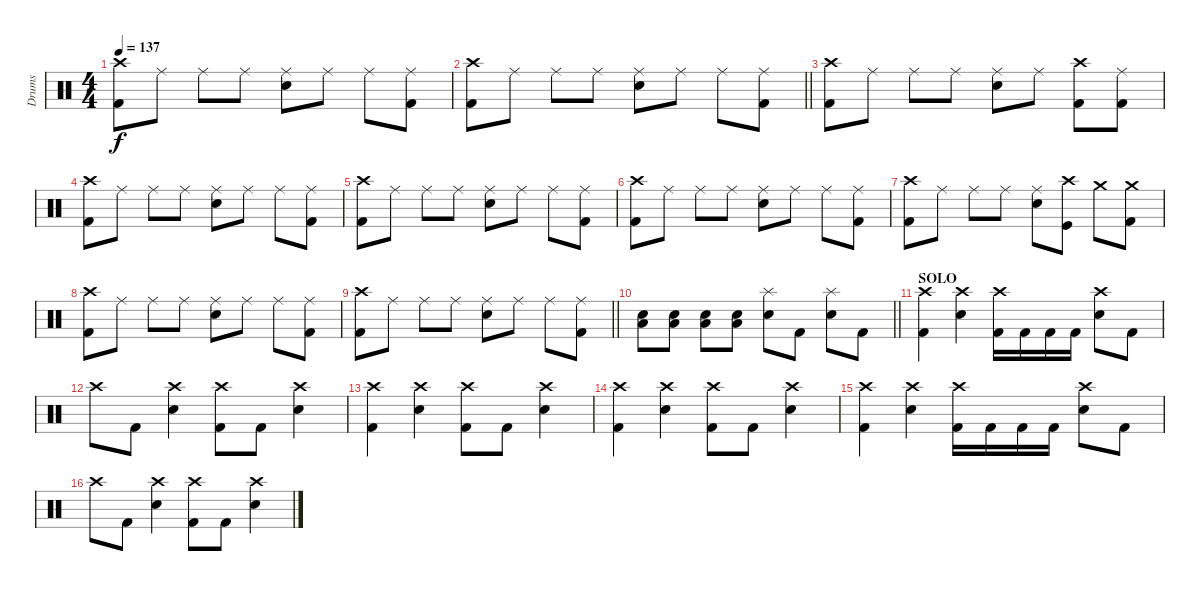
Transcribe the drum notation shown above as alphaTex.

\track ("Drums" "Drums") {instrument percussion}
\staff {score}
\articulation defaults
\ts (4 4)
\tempo 137
\clef neutral
\ks c
("Crash high (hit)" "Kick (hit) 2").8{dy f} "Ride (middle)".8 "Ride (middle)".8 "Ride (middle)".8 ("Ride (middle)" "Electric Snare (hit)").8 "Ride (middle)".8 "Ride (middle)".8 ("Ride (middle)" "Kick (hit) 2").8 |
\barLineRight lightlight
("Crash high (hit)" "Kick (hit) 2").8 "Ride (middle)".8 "Ride (middle)".8 "Ride (middle)".8 ("Ride (middle)" "Electric Snare (hit)").8 "Ride (middle)".8 "Ride (middle)".8 ("Ride (middle)" "Kick (hit) 2").8 |
("Crash high (hit)" "Kick (hit) 2").8 "Ride (middle)".8 "Ride (middle)".8 "Ride (middle)".8 ("Ride (middle)" "Electric Snare (hit)").8 "Ride (middle)".8 ("Crash high (hit)" "Kick (hit) 2").8 ("Ride (middle)" "Kick (hit) 2").8 |
("Crash high (hit)" "Kick (hit) 2").8 "Ride (middle)".8 "Ride (middle)".8 "Ride (middle)".8 ("Ride (middle)" "Electric Snare (hit)").8 "Ride (middle)".8 "Ride (middle)".8 ("Ride (middle)" "Kick (hit) 2").8 |
("Crash high (hit)" "Kick (hit) 2").8 "Ride (middle)".8 "Ride (middle)".8 "Ride (middle)".8 ("Ride (middle)" "Electric Snare (hit)").8 "Ride (middle)".8 "Ride (middle)".8 ("Ride (middle)" "Kick (hit) 2").8 |
("Crash high (hit)" "Kick (hit) 2").8 "Ride (middle)".8 "Ride (middle)".8 "Ride (middle)".8 ("Ride (middle)" "Electric Snare (hit)").8 "Ride (middle)".8 "Ride (middle)".8 ("Ride (middle)" "Kick (hit) 2").8 |
("Crash high (hit)" "Kick (hit) 2").8 "Ride (middle)".8 "Ride (middle)".8 "Ride (middle)".8 ("Ride (middle)" "Electric Snare (hit)").8 ("Crash high (hit)" "Kick (hit)").8 "Crash medium (hit)".8 ("Crash medium (hit)" "Kick (hit) 2").8 |
("Crash high (hit)" "Kick (hit) 2").8 "Ride (middle)".8 "Ride (middle)".8 "Ride (middle)".8 ("Ride (middle)" "Electric Snare (hit)").8 "Ride (middle)".8 "Ride (middle)".8 ("Ride (middle)" "Kick (hit) 2").8 |
\barLineRight lightlight
("Crash high (hit)" "Kick (hit) 2").8 "Ride (middle)".8 "Ride (middle)".8 "Ride (middle)".8 ("Ride (middle)" "Electric Snare (hit)").8 "Ride (middle)".8 "Ride (middle)".8 ("Ride (middle)" "Kick (hit) 2").8 |
\barLineRight lightlight
("Low Floor Tom (hit)" "Electric Snare (hit)").8 ("Low Floor Tom (hit)" "Electric Snare (hit)").8 ("Low Floor Tom (hit)" "Electric Snare (hit)").8 ("Low Floor Tom (hit)" "Electric Snare (hit)").8 ("Splash (hit)" "Electric Snare (hit)").8 "Kick (hit) 2".8 ("Splash (hit)" "Electric Snare (hit)").8 "Kick (hit) 2".8 |
\section ("" "SOLO")
("Crash high (hit)" "Kick (hit) 2").4 ("Crash high (hit)" "Electric Snare (hit)").4 ("Crash high (hit)" "Kick (hit) 2").16 "Kick (hit) 2".16 "Kick (hit) 2".16 "Kick (hit) 2".16 ("Crash high (hit)" "Electric Snare (hit)").8 "Kick (hit) 2".8 |
"Crash high (hit)".8 "Kick (hit) 2".8 ("Crash high (hit)" "Electric Snare (hit)").4 ("Crash high (hit)" "Kick (hit) 2").8 "Kick (hit) 2".8 ("Crash high (hit)" "Electric Snare (hit)").4 |
("Crash high (hit)" "Kick (hit) 2").4 ("Crash high (hit)" "Electric Snare (hit)").4 ("Crash high (hit)" "Kick (hit) 2").8 "Kick (hit) 2".8 ("Crash high (hit)" "Electric Snare (hit)").4 |
("Crash high (hit)" "Kick (hit) 2").4 ("Crash high (hit)" "Electric Snare (hit)").4 ("Crash high (hit)" "Kick (hit) 2").8 "Kick (hit) 2".8 ("Crash high (hit)" "Electric Snare (hit)").4 |
("Crash high (hit)" "Kick (hit) 2").4 ("Crash high (hit)" "Electric Snare (hit)").4 ("Crash high (hit)" "Kick (hit) 2").16 "Kick (hit) 2".16 "Kick (hit) 2".16 "Kick (hit) 2".16 ("Crash high (hit)" "Electric Snare (hit)").8 "Kick (hit) 2".8 |
"Crash high (hit)".8 "Kick (hit) 2".8 ("Crash high (hit)" "Electric Snare (hit)").4 ("Crash high (hit)" "Kick (hit) 2").8 "Kick (hit) 2".8 ("Crash high (hit)" "Electric Snare (hit)").4
